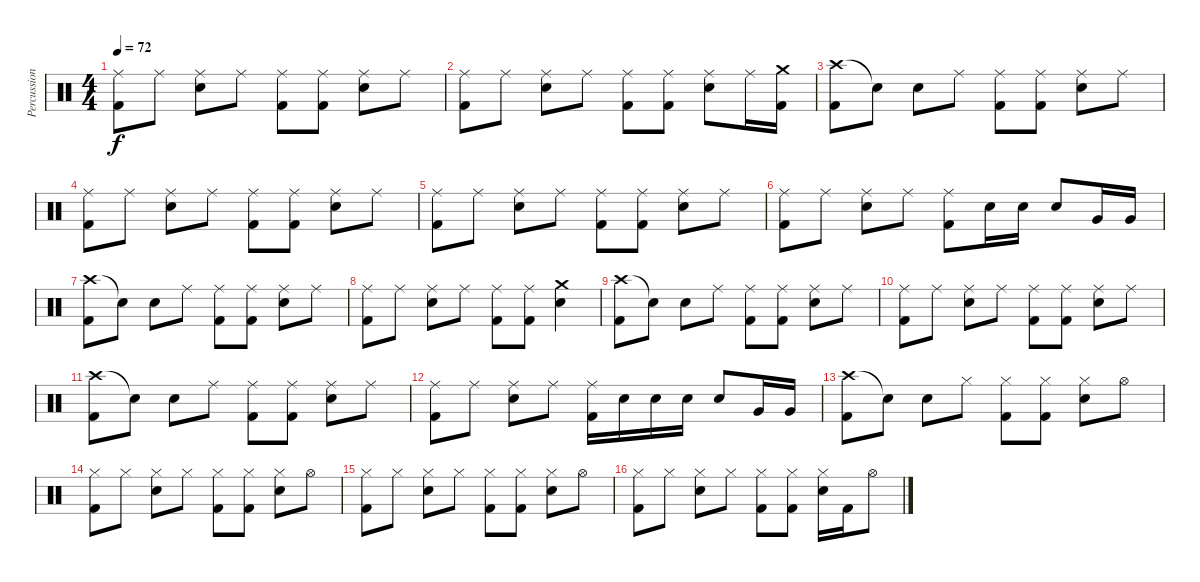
\track ("Percussioni" "Percussion") {instrument percussion}
\staff {score}
\articulation defaults
\ts (4 4)
\tempo 72
\clef neutral
\ks c
("Ride (middle)" "Kick (hit) 2").8{dy f} "Ride (middle)".8 ("Electric Snare (hit)" "Ride (middle)").8 "Ride (middle)".8 ("Ride (middle)" "Kick (hit) 2").8 ("Ride (middle)" "Kick (hit) 2").8 ("Electric Snare (hit)" "Ride (middle)").8 "Ride (middle)".8 |
("Ride (middle)" "Kick (hit) 2").8 "Ride (middle)".8 ("Electric Snare (hit)" "Ride (middle)").8 "Ride (middle)".8 ("Ride (middle)" "Kick (hit) 2").8 ("Ride (middle)" "Kick (hit) 2").8 ("Electric Snare (hit)" "Ride (middle)").8 "Ride (middle)".16 ("Crash medium (hit)" "Kick (hit) 2").16 |
("Crash high (hit)" "Kick (hit) 2").8 "Snare (hit)"{t}.8 "Electric Snare (hit)".8 "Ride (middle)".8 ("Ride (middle)" "Kick (hit) 2").8 ("Ride (middle)" "Kick (hit) 2").8 ("Electric Snare (hit)" "Ride (middle)").8 "Ride (middle)".8 |
("Ride (middle)" "Kick (hit) 2").8 "Ride (middle)".8 ("Electric Snare (hit)" "Ride (middle)").8 "Ride (middle)".8 ("Ride (middle)" "Kick (hit) 2").8 ("Ride (middle)" "Kick (hit) 2").8 ("Electric Snare (hit)" "Ride (middle)").8 "Ride (middle)".8 |
("Ride (middle)" "Kick (hit) 2").8 "Ride (middle)".8 ("Electric Snare (hit)" "Ride (middle)").8 "Ride (middle)".8 ("Ride (middle)" "Kick (hit) 2").8 ("Ride (middle)" "Kick (hit) 2").8 ("Electric Snare (hit)" "Ride (middle)").8 "Ride (middle)".8 |
("Ride (middle)" "Kick (hit) 2").8 "Ride (middle)".8 ("Electric Snare (hit)" "Ride (middle)").8 "Ride (middle)".8 ("Ride (middle)" "Kick (hit) 2").8 "Electric Snare (hit)".16 "Electric Snare (hit)".16 "Electric Snare (hit)".8 "Very Low Tom (hit)".16 "Very Low Tom (hit)".16 |
("Crash high (hit)" "Kick (hit) 2").8 "Snare (hit)"{t}.8 "Electric Snare (hit)".8 "Ride (middle)".8 ("Ride (middle)" "Kick (hit) 2").8 ("Ride (middle)" "Kick (hit) 2").8 ("Electric Snare (hit)" "Ride (middle)").8 "Ride (middle)".8 |
("Ride (middle)" "Kick (hit) 2").8 "Ride (middle)".8 ("Electric Snare (hit)" "Ride (middle)").8 "Ride (middle)".8 ("Ride (middle)" "Kick (hit) 2").8 ("Ride (middle)" "Kick (hit) 2").8 ("Crash medium (hit)" "Electric Snare (hit)").4 |
("Crash high (hit)" "Kick (hit) 2").8 "Snare (hit)"{t}.8 "Electric Snare (hit)".8 "Ride (middle)".8 ("Ride (middle)" "Kick (hit) 2").8 ("Ride (middle)" "Kick (hit) 2").8 ("Electric Snare (hit)" "Ride (middle)").8 "Ride (middle)".8 |
("Ride (middle)" "Kick (hit) 2").8 "Ride (middle)".8 ("Electric Snare (hit)" "Ride (middle)").8 "Ride (middle)".8 ("Ride (middle)" "Kick (hit) 2").8 ("Ride (middle)" "Kick (hit) 2").8 ("Electric Snare (hit)" "Ride (middle)").8 "Ride (middle)".8 |
("Crash high (hit)" "Kick (hit) 2").8 "Snare (hit)"{t}.8 "Electric Snare (hit)".8 "Ride (middle)".8 ("Ride (middle)" "Kick (hit) 2").8 ("Ride (middle)" "Kick (hit) 2").8 ("Electric Snare (hit)" "Ride (middle)").8 "Ride (middle)".8 |
("Ride (middle)" "Kick (hit) 2").8 "Ride (middle)".8 ("Electric Snare (hit)" "Ride (middle)").8 "Ride (middle)".8 ("Ride (middle)" "Kick (hit) 2").16 "Electric Snare (hit)".16 "Electric Snare (hit)".16 "Electric Snare (hit)".16 "Electric Snare (hit)".8 "Very Low Tom (hit)".16 "Very Low Tom (hit)".16 |
("Crash high (hit)" "Kick (hit) 2").8 "Snare (hit)"{t}.8 "Electric Snare (hit)".8 "Hi-Hat (closed)".8 ("Hi-Hat (closed)" "Kick (hit) 2").8 ("Hi-Hat (closed)" "Kick (hit) 2").8 ("Electric Snare (hit)" "Hi-Hat (closed)").8 "Hi-Hat (open)".8 |
("Hi-Hat (closed)" "Kick (hit) 2").8 "Hi-Hat (closed)".8 ("Electric Snare (hit)" "Hi-Hat (closed)").8 "Hi-Hat (closed)".8 ("Hi-Hat (closed)" "Kick (hit) 2").8 ("Hi-Hat (closed)" "Kick (hit) 2").8 ("Electric Snare (hit)" "Hi-Hat (closed)").8 "Hi-Hat (open)".8 |
("Hi-Hat (closed)" "Kick (hit) 2").8 "Hi-Hat (closed)".8 ("Electric Snare (hit)" "Hi-Hat (closed)").8 "Hi-Hat (closed)".8 ("Hi-Hat (closed)" "Kick (hit) 2").8 ("Hi-Hat (closed)" "Kick (hit) 2").8 ("Electric Snare (hit)" "Hi-Hat (closed)").8 "Hi-Hat (open)".8 |
("Hi-Hat (closed)" "Kick (hit) 2").8 "Hi-Hat (closed)".8 ("Electric Snare (hit)" "Hi-Hat (closed)").8 "Hi-Hat (closed)".8 ("Hi-Hat (closed)" "Kick (hit) 2").8 ("Hi-Hat (closed)" "Kick (hit) 2").8 ("Electric Snare (hit)" "Hi-Hat (closed)").16 "Kick (hit) 2".16 "Hi-Hat (open)".8
